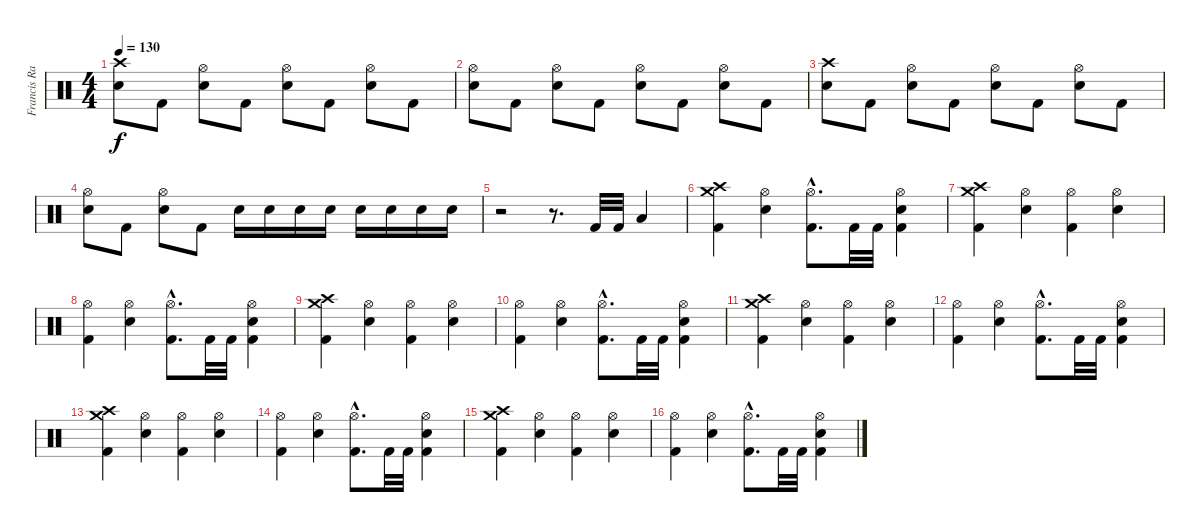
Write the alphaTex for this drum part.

\track ("Francis Ramirez" "Francis Ra") {instrument percussion}
\staff {score}
\articulation defaults
\ts (4 4)
\tempo 130
\clef neutral
\ks c
("Crash high (hit)" "Electric Snare (hit)").8{dy f} "Kick (hit) 2".8 ("Hi-Hat (open)" "Electric Snare (hit)").8 "Kick (hit) 2".8 ("Hi-Hat (open)" "Electric Snare (hit)").8 "Kick (hit) 2".8 ("Hi-Hat (open)" "Electric Snare (hit)").8 "Kick (hit) 2".8 |
("Hi-Hat (open)" "Electric Snare (hit)").8 "Kick (hit) 2".8 ("Hi-Hat (open)" "Electric Snare (hit)").8 "Kick (hit) 2".8 ("Hi-Hat (open)" "Electric Snare (hit)").8 "Kick (hit) 2".8 ("Hi-Hat (open)" "Electric Snare (hit)").8 "Kick (hit) 2".8 |
("Crash high (hit)" "Electric Snare (hit)").8 "Kick (hit) 2".8 ("Hi-Hat (open)" "Electric Snare (hit)").8 "Kick (hit) 2".8 ("Hi-Hat (open)" "Electric Snare (hit)").8 "Kick (hit) 2".8 ("Hi-Hat (open)" "Electric Snare (hit)").8 "Kick (hit) 2".8 |
("Hi-Hat (open)" "Electric Snare (hit)").8 "Kick (hit) 2".8 ("Hi-Hat (open)" "Electric Snare (hit)").8 "Kick (hit) 2".8 "Electric Snare (hit)".16 "Electric Snare (hit)".16 "Electric Snare (hit)".16 "Electric Snare (hit)".16 "Electric Snare (hit)".16 "Electric Snare (hit)".16 "Electric Snare (hit)".16 "Electric Snare (hit)".16 |
r.2 r.8{d} "Kick (hit) 2".32 "Kick (hit) 2".32 "Low Tom (hit)".4 |
("Crash high (hit)" "Crash medium (hit)" "Kick (hit) 2").4 ("Hi-Hat (open)" "Electric Snare (hit)").4 ("Hi-Hat (open)"{hac} "Kick (hit) 2"{hac}).8{d} "Kick (hit) 2".32 "Kick (hit) 2".32 ("Hi-Hat (open)" "Electric Snare (hit)" "Kick (hit) 2").4 |
("Crash high (hit)" "Crash medium (hit)" "Kick (hit) 2").4 ("Hi-Hat (open)" "Electric Snare (hit)").4 ("Hi-Hat (open)" "Kick (hit) 2").4 ("Hi-Hat (open)" "Electric Snare (hit)").4 |
("Hi-Hat (open)" "Kick (hit) 2").4 ("Hi-Hat (open)" "Electric Snare (hit)").4 ("Hi-Hat (open)"{hac} "Kick (hit) 2"{hac}).8{d} "Kick (hit) 2".32 "Kick (hit) 2".32 ("Hi-Hat (open)" "Electric Snare (hit)" "Kick (hit) 2").4 |
("Crash high (hit)" "Crash medium (hit)" "Kick (hit) 2").4 ("Hi-Hat (open)" "Electric Snare (hit)").4 ("Hi-Hat (open)" "Kick (hit) 2").4 ("Hi-Hat (open)" "Electric Snare (hit)").4 |
("Hi-Hat (open)" "Kick (hit) 2").4 ("Hi-Hat (open)" "Electric Snare (hit)").4 ("Hi-Hat (open)"{hac} "Kick (hit) 2"{hac}).8{d} "Kick (hit) 2".32 "Kick (hit) 2".32 ("Hi-Hat (open)" "Electric Snare (hit)" "Kick (hit) 2").4 |
("Crash high (hit)" "Crash medium (hit)" "Kick (hit) 2").4 ("Hi-Hat (open)" "Electric Snare (hit)").4 ("Hi-Hat (open)" "Kick (hit) 2").4 ("Hi-Hat (open)" "Electric Snare (hit)").4 |
("Hi-Hat (open)" "Kick (hit) 2").4 ("Hi-Hat (open)" "Electric Snare (hit)").4 ("Hi-Hat (open)"{hac} "Kick (hit) 2"{hac}).8{d} "Kick (hit) 2".32 "Kick (hit) 2".32 ("Hi-Hat (open)" "Electric Snare (hit)" "Kick (hit) 2").4 |
("Crash high (hit)" "Crash medium (hit)" "Kick (hit) 2").4 ("Hi-Hat (open)" "Electric Snare (hit)").4 ("Hi-Hat (open)" "Kick (hit) 2").4 ("Hi-Hat (open)" "Electric Snare (hit)").4 |
("Hi-Hat (open)" "Kick (hit) 2").4 ("Hi-Hat (open)" "Electric Snare (hit)").4 ("Hi-Hat (open)"{hac} "Kick (hit) 2"{hac}).8{d} "Kick (hit) 2".32 "Kick (hit) 2".32 ("Hi-Hat (open)" "Electric Snare (hit)" "Kick (hit) 2").4 |
("Crash high (hit)" "Crash medium (hit)" "Kick (hit) 2").4 ("Hi-Hat (open)" "Electric Snare (hit)").4 ("Hi-Hat (open)" "Kick (hit) 2").4 ("Hi-Hat (open)" "Electric Snare (hit)").4 |
("Hi-Hat (open)" "Kick (hit) 2").4 ("Hi-Hat (open)" "Electric Snare (hit)").4 ("Hi-Hat (open)"{hac} "Kick (hit) 2"{hac}).8{d} "Kick (hit) 2".32 "Kick (hit) 2".32 ("Hi-Hat (open)" "Electric Snare (hit)" "Kick (hit) 2").4
